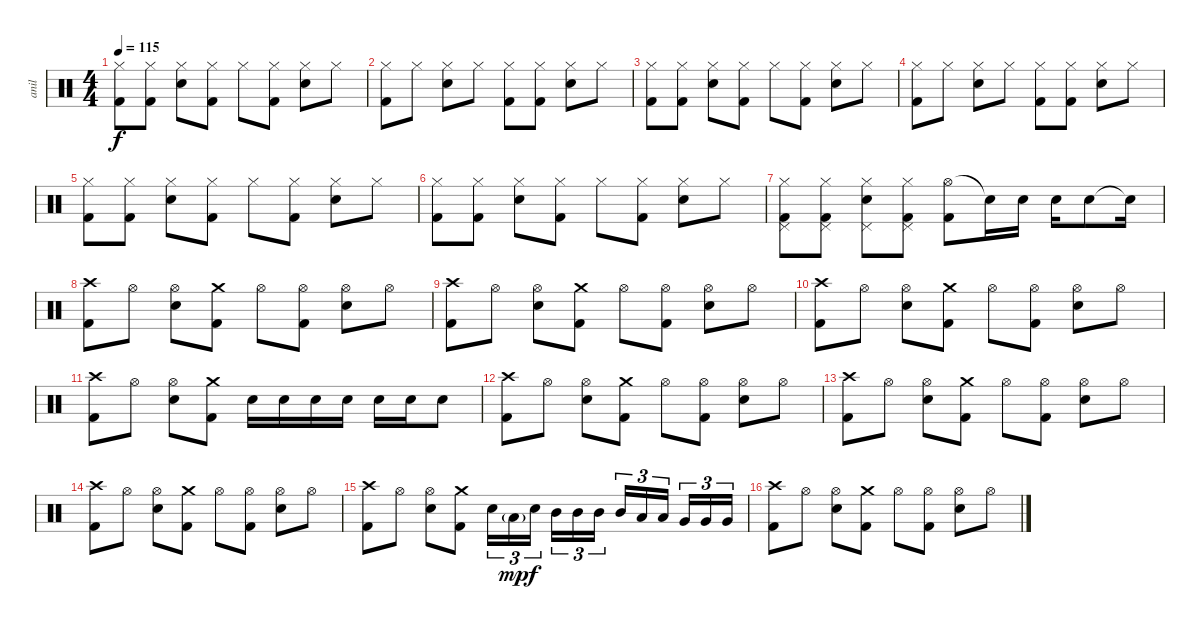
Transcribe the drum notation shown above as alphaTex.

\track ("anil " "anil ") {instrument percussion}
\staff {score}
\articulation defaults
\ts (4 4)
\tempo 115
\clef neutral
\ks c
("Hi-Hat (closed)" "Kick (hit) 2").8{dy f} ("Hi-Hat (closed)" "Kick (hit) 2").8 ("Hi-Hat (closed)" "Snare (hit) 2").8 ("Hi-Hat (closed)" "Kick (hit) 2").8 "Hi-Hat (closed)".8 ("Hi-Hat (closed)" "Kick (hit) 2").8 ("Hi-Hat (closed)" "Snare (hit) 2").8 "Hi-Hat (closed)".8 |
("Hi-Hat (closed)" "Kick (hit) 2").8 "Hi-Hat (closed)".8 ("Hi-Hat (closed)" "Snare (hit) 2").8 "Hi-Hat (closed)".8 ("Hi-Hat (closed)" "Kick (hit) 2").8 ("Hi-Hat (closed)" "Kick (hit) 2").8 ("Hi-Hat (closed)" "Snare (hit) 2").8 "Hi-Hat (closed)".8 |
("Hi-Hat (closed)" "Kick (hit) 2").8 ("Hi-Hat (closed)" "Kick (hit) 2").8 ("Hi-Hat (closed)" "Snare (hit) 2").8 ("Hi-Hat (closed)" "Kick (hit) 2").8 "Hi-Hat (closed)".8 ("Hi-Hat (closed)" "Kick (hit) 2").8 ("Hi-Hat (closed)" "Snare (hit) 2").8 "Hi-Hat (closed)".8 |
("Hi-Hat (closed)" "Kick (hit) 2").8 "Hi-Hat (closed)".8 ("Hi-Hat (closed)" "Snare (hit) 2").8 "Hi-Hat (closed)".8 ("Hi-Hat (closed)" "Kick (hit) 2").8 ("Hi-Hat (closed)" "Kick (hit) 2").8 ("Hi-Hat (closed)" "Snare (hit) 2").8 "Hi-Hat (closed)".8 |
("Hi-Hat (closed)" "Kick (hit) 2").8 ("Hi-Hat (closed)" "Kick (hit) 2").8 ("Hi-Hat (closed)" "Snare (hit) 2").8 ("Hi-Hat (closed)" "Kick (hit) 2").8 "Hi-Hat (closed)".8 ("Hi-Hat (closed)" "Kick (hit) 2").8 ("Hi-Hat (closed)" "Snare (hit) 2").8 "Hi-Hat (closed)".8 |
("Hi-Hat (closed)" "Kick (hit) 2").8 ("Hi-Hat (closed)" "Kick (hit) 2").8 ("Hi-Hat (closed)" "Snare (hit) 2").8 ("Hi-Hat (closed)" "Kick (hit) 2").8 "Hi-Hat (closed)".8 ("Hi-Hat (closed)" "Kick (hit) 2").8 ("Hi-Hat (closed)" "Snare (hit) 2").8 "Hi-Hat (closed)".8 |
("Hi-Hat (closed)" "Pedal Hi-Hat (hit)" "Kick (hit) 2").8 ("Hi-Hat (closed)" "Pedal Hi-Hat (hit)" "Kick (hit) 2").8 ("Hi-Hat (closed)" "Pedal Hi-Hat (hit)" "Electric Snare (hit)").8 ("Hi-Hat (closed)" "Pedal Hi-Hat (hit)" "Kick (hit) 2").8 ("Hi-Hat (open)" "Kick (hit) 2").8 "Snare (hit)"{t}.16 "Electric Snare (hit)".16 "Electric Snare (hit)".16 "Electric Snare (hit)".8 "Snare (hit)"{t}.16 |
("Crash high (hit)" "Kick (hit) 2").8 "Hi-Hat (open)".8 ("Hi-Hat (open)" "Electric Snare (hit)").8 ("Crash medium (hit)" "Kick (hit) 2").8 "Hi-Hat (open)".8 ("Hi-Hat (open)" "Kick (hit) 2").8 ("Hi-Hat (open)" "Electric Snare (hit)").8 "Hi-Hat (open)".8 |
("Crash high (hit)" "Kick (hit) 2").8 "Hi-Hat (open)".8 ("Hi-Hat (open)" "Electric Snare (hit)").8 ("Crash medium (hit)" "Kick (hit) 2").8 "Hi-Hat (open)".8 ("Hi-Hat (open)" "Kick (hit) 2").8 ("Hi-Hat (open)" "Electric Snare (hit)").8 "Hi-Hat (open)".8 |
("Crash high (hit)" "Kick (hit) 2").8 "Hi-Hat (open)".8 ("Hi-Hat (open)" "Electric Snare (hit)").8 ("Crash medium (hit)" "Kick (hit) 2").8 "Hi-Hat (open)".8 ("Hi-Hat (open)" "Kick (hit) 2").8 ("Hi-Hat (open)" "Electric Snare (hit)").8 "Hi-Hat (open)".8 |
("Crash high (hit)" "Kick (hit) 2").8 "Hi-Hat (open)".8 ("Hi-Hat (open)" "Electric Snare (hit)").8 ("Crash medium (hit)" "Kick (hit) 2").8 "Snare (hit) 2".16 "Snare (hit) 2".16 "Snare (hit) 2".16 "Snare (hit) 2".16 "Snare (hit) 2".16 "Snare (hit) 2".16 "Snare (hit) 2".8 |
("Crash high (hit)" "Kick (hit) 2").8 "Hi-Hat (open)".8 ("Hi-Hat (open)" "Electric Snare (hit)").8 ("Crash medium (hit)" "Kick (hit) 2").8 "Hi-Hat (open)".8 ("Hi-Hat (open)" "Kick (hit) 2").8 ("Hi-Hat (open)" "Electric Snare (hit)").8 "Hi-Hat (open)".8 |
("Crash high (hit)" "Kick (hit) 2").8 "Hi-Hat (open)".8 ("Hi-Hat (open)" "Electric Snare (hit)").8 ("Crash medium (hit)" "Kick (hit) 2").8 "Hi-Hat (open)".8 ("Hi-Hat (open)" "Kick (hit) 2").8 ("Hi-Hat (open)" "Electric Snare (hit)").8 "Hi-Hat (open)".8 |
("Crash high (hit)" "Kick (hit) 2").8 "Hi-Hat (open)".8 ("Hi-Hat (open)" "Electric Snare (hit)").8 ("Crash medium (hit)" "Kick (hit) 2").8 "Hi-Hat (open)".8 ("Hi-Hat (open)" "Kick (hit) 2").8 ("Hi-Hat (open)" "Electric Snare (hit)").8 "Hi-Hat (open)".8 |
("Crash high (hit)" "Kick (hit) 2").8 "Hi-Hat (open)".8 ("Hi-Hat (open)" "Electric Snare (hit)").8 ("Crash medium (hit)" "Kick (hit) 2").8 "Electric Snare (hit)".16{tu (3 2)} "Low Tom (hit)"{g}.16{tu (3 2) dy mp} "Electric Snare (hit)".16{tu (3 2) dy f} "Mid Tom (hit)".16{tu (3 2)} "Mid Tom (hit)".16{tu (3 2)} "Mid Tom (hit)".16{tu (3 2)} "Mid Tom (hit)".16{tu (3 2)} "Low Tom (hit)".16{tu (3 2)} "Low Tom (hit)".16{tu (3 2)} "Very Low Tom (hit)".16{tu (3 2)} "Very Low Tom (hit)".16{tu (3 2)} "Very Low Tom (hit)".16{tu (3 2)} |
("Crash high (hit)" "Kick (hit) 2").8 "Hi-Hat (open)".8 ("Hi-Hat (open)" "Electric Snare (hit)").8 ("Crash medium (hit)" "Kick (hit) 2").8 "Hi-Hat (open)".8 ("Hi-Hat (open)" "Kick (hit) 2").8 ("Hi-Hat (open)" "Electric Snare (hit)").8 "Hi-Hat (open)".8
